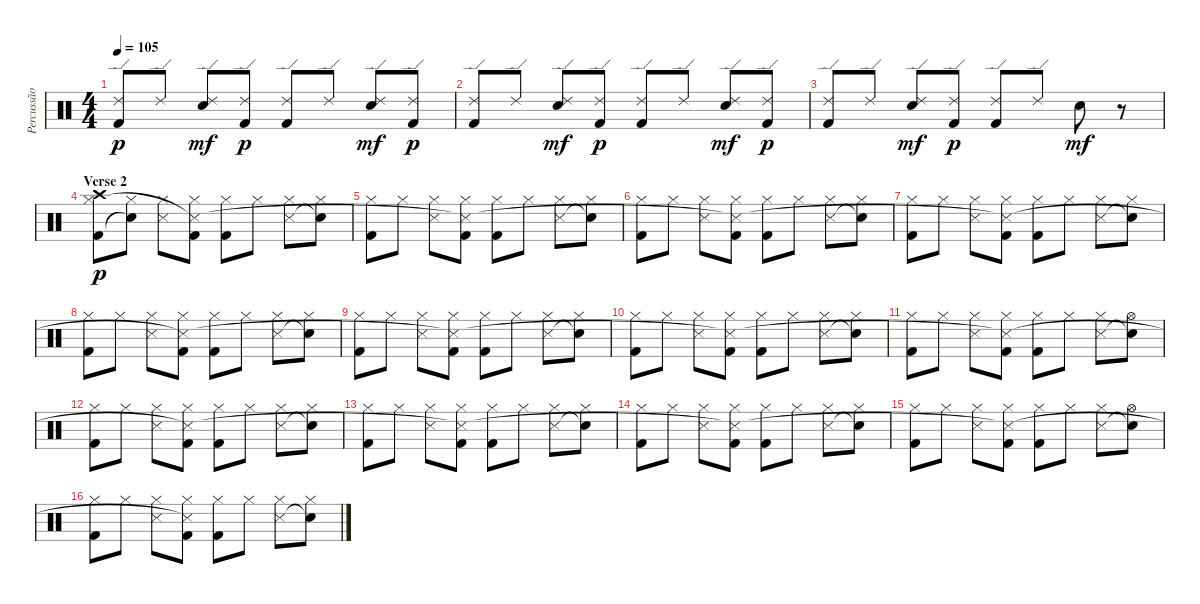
\track ("Percussão" "Percussão") {instrument percussion}
\staff {score}
\articulation defaults
\ts (4 4)
\tempo 105
\clef neutral
\ks c
("Kick (hit) 2" "Ride (edge) 2").8{dy p} "Ride (edge) 2".8 ("Ride (edge) 2" "Electric Snare (hit)").8{dy mf} ("Kick (hit) 2" "Ride (edge) 2").8{dy p} ("Kick (hit) 2" "Ride (edge) 2").8 "Ride (edge) 2".8 ("Ride (edge) 2" "Electric Snare (hit)").8{dy mf} ("Kick (hit) 2" "Ride (edge) 2").8{dy p} |
("Kick (hit) 2" "Ride (edge) 2").8 "Ride (edge) 2".8 ("Ride (edge) 2" "Electric Snare (hit)").8{dy mf} ("Kick (hit) 2" "Ride (edge) 2").8{dy p} ("Kick (hit) 2" "Ride (edge) 2").8 "Ride (edge) 2".8 ("Ride (edge) 2" "Electric Snare (hit)").8{dy mf} ("Kick (hit) 2" "Ride (edge) 2").8{dy p} |
("Kick (hit) 2" "Ride (edge) 2").8 "Ride (edge) 2".8 ("Ride (edge) 2" "Electric Snare (hit)").8{dy mf} ("Kick (hit) 2" "Ride (edge) 2").8{dy p} ("Kick (hit) 2" "Ride (edge) 2").8 "Ride (edge) 2".8 "Electric Snare (hit)".8{dy mf} r.8 |
\section ("" "Verse 2")
("Kick (hit) 2" "Crash high (hit)" "Hi-Hat (closed)").8{dy p} ("Snare (hit)"{t} "Hi-Hat (closed)").8 ("Hi-Hat (closed)" "Snare (side stick) 3").8 ("Kick (hit) 2" "Hi-Hat (closed)" "Snare (side stick) 3"{t}).8 ("Kick (hit) 2" "Hi-Hat (closed)").8 "Hi-Hat (closed)".8 ("Hi-Hat (closed)" "Snare (side stick) 3").8 ("Hi-Hat (closed)" "Snare (hit)"{t}).8 |
("Kick (hit) 2" "Hi-Hat (closed)").8 "Hi-Hat (closed)".8 ("Hi-Hat (closed)" "Snare (side stick) 3").8 ("Kick (hit) 2" "Hi-Hat (closed)" "Snare (side stick) 3"{t}).8 ("Kick (hit) 2" "Hi-Hat (closed)").8 "Hi-Hat (closed)".8 ("Hi-Hat (closed)" "Snare (side stick) 3").8 ("Hi-Hat (closed)" "Snare (hit)"{t}).8 |
("Kick (hit) 2" "Hi-Hat (closed)").8 "Hi-Hat (closed)".8 ("Hi-Hat (closed)" "Snare (side stick) 3").8 ("Kick (hit) 2" "Hi-Hat (closed)" "Snare (side stick) 3"{t}).8 ("Kick (hit) 2" "Hi-Hat (closed)").8 "Hi-Hat (closed)".8 ("Hi-Hat (closed)" "Snare (side stick) 3").8 ("Hi-Hat (closed)" "Snare (hit)"{t}).8 |
("Kick (hit) 2" "Hi-Hat (closed)").8 "Hi-Hat (closed)".8 ("Hi-Hat (closed)" "Snare (side stick) 3").8 ("Kick (hit) 2" "Hi-Hat (closed)" "Snare (side stick) 3"{t}).8 ("Kick (hit) 2" "Hi-Hat (closed)").8 "Hi-Hat (closed)".8 ("Hi-Hat (closed)" "Snare (side stick) 3").8 ("Hi-Hat (closed)" "Snare (hit)"{t}).8 |
("Kick (hit) 2" "Hi-Hat (closed)").8 "Hi-Hat (closed)".8 ("Hi-Hat (closed)" "Snare (side stick) 3").8 ("Kick (hit) 2" "Hi-Hat (closed)" "Snare (side stick) 3"{t}).8 ("Kick (hit) 2" "Hi-Hat (closed)").8 "Hi-Hat (closed)".8 ("Hi-Hat (closed)" "Snare (side stick) 3").8 ("Hi-Hat (closed)" "Snare (hit)"{t}).8 |
("Kick (hit) 2" "Hi-Hat (closed)").8 "Hi-Hat (closed)".8 ("Hi-Hat (closed)" "Snare (side stick) 3").8 ("Kick (hit) 2" "Hi-Hat (closed)" "Snare (side stick) 3"{t}).8 ("Kick (hit) 2" "Hi-Hat (closed)").8 "Hi-Hat (closed)".8 ("Hi-Hat (closed)" "Snare (side stick) 3").8 ("Hi-Hat (closed)" "Snare (hit)"{t}).8 |
("Kick (hit) 2" "Hi-Hat (closed)").8 "Hi-Hat (closed)".8 ("Hi-Hat (closed)" "Snare (side stick) 3").8 ("Kick (hit) 2" "Hi-Hat (closed)" "Snare (side stick) 3"{t}).8 ("Kick (hit) 2" "Hi-Hat (closed)").8 "Hi-Hat (closed)".8 ("Hi-Hat (closed)" "Snare (side stick) 3").8 ("Hi-Hat (closed)" "Snare (hit)"{t}).8 |
("Kick (hit) 2" "Hi-Hat (closed)").8 "Hi-Hat (closed)".8 ("Hi-Hat (closed)" "Snare (side stick) 3").8 ("Kick (hit) 2" "Hi-Hat (closed)" "Snare (side stick) 3"{t}).8 ("Kick (hit) 2" "Hi-Hat (closed)").8 "Hi-Hat (closed)".8 ("Hi-Hat (closed)" "Snare (side stick) 3").8 ("Hi-Hat (open)" "Snare (hit)"{t}).8 |
("Kick (hit) 2" "Hi-Hat (closed)").8 "Hi-Hat (closed)".8 ("Hi-Hat (closed)" "Snare (side stick) 3").8 ("Kick (hit) 2" "Hi-Hat (closed)" "Snare (side stick) 3"{t}).8 ("Kick (hit) 2" "Hi-Hat (closed)").8 "Hi-Hat (closed)".8 ("Hi-Hat (closed)" "Snare (side stick) 3").8 ("Hi-Hat (closed)" "Snare (hit)"{t}).8 |
("Kick (hit) 2" "Hi-Hat (closed)").8 "Hi-Hat (closed)".8 ("Hi-Hat (closed)" "Snare (side stick) 3").8 ("Kick (hit) 2" "Hi-Hat (closed)" "Snare (side stick) 3"{t}).8 ("Kick (hit) 2" "Hi-Hat (closed)").8 "Hi-Hat (closed)".8 ("Hi-Hat (closed)" "Snare (side stick) 3").8 ("Hi-Hat (closed)" "Snare (hit)"{t}).8 |
("Kick (hit) 2" "Hi-Hat (closed)").8 "Hi-Hat (closed)".8 ("Hi-Hat (closed)" "Snare (side stick) 3").8 ("Kick (hit) 2" "Hi-Hat (closed)" "Snare (side stick) 3"{t}).8 ("Kick (hit) 2" "Hi-Hat (closed)").8 "Hi-Hat (closed)".8 ("Hi-Hat (closed)" "Snare (side stick) 3").8 ("Hi-Hat (closed)" "Snare (hit)"{t}).8 |
("Kick (hit) 2" "Hi-Hat (closed)").8 "Hi-Hat (closed)".8 ("Hi-Hat (closed)" "Snare (side stick) 3").8 ("Kick (hit) 2" "Hi-Hat (closed)" "Snare (side stick) 3"{t}).8 ("Kick (hit) 2" "Hi-Hat (closed)").8 "Hi-Hat (closed)".8 ("Hi-Hat (closed)" "Snare (side stick) 3").8 ("Hi-Hat (open)" "Snare (hit)"{t}).8 |
("Kick (hit) 2" "Hi-Hat (closed)").8 "Hi-Hat (closed)".8 ("Hi-Hat (closed)" "Snare (side stick) 3").8 ("Kick (hit) 2" "Hi-Hat (closed)" "Snare (side stick) 3"{t}).8 ("Kick (hit) 2" "Hi-Hat (closed)").8 "Hi-Hat (closed)".8 ("Hi-Hat (closed)" "Snare (side stick) 3").8 ("Hi-Hat (closed)" "Snare (hit)"{t}).8
